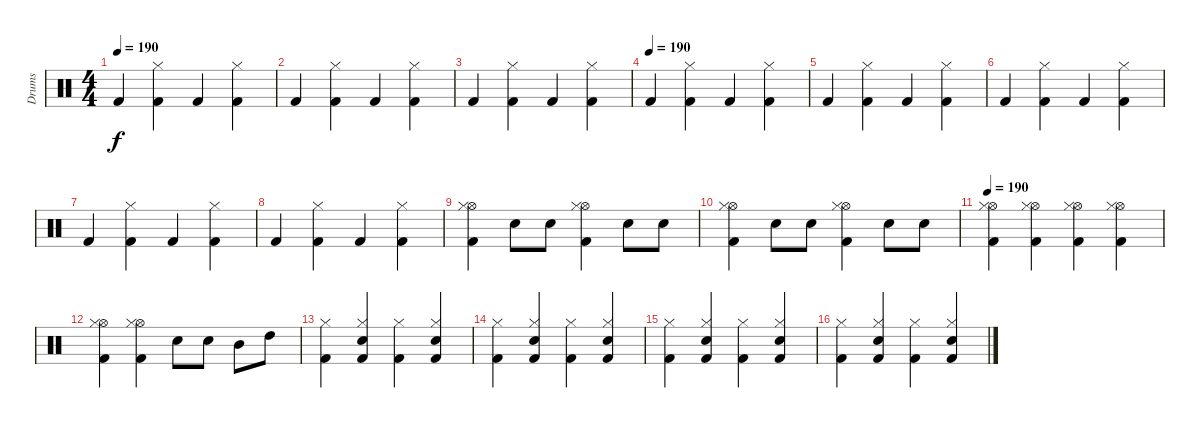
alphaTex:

\track ("Drums" "Drums") {instrument percussion}
\staff {score}
\articulation defaults
\ts (4 4)
\tempo 190
\clef neutral
\ks c "Kick (hit) 2".4{dy f}
("Hi-Hat (closed)" "Kick (hit) 2").4 "Kick (hit) 2".4 ("Hi-Hat (closed)" "Kick (hit) 2").4 |
"Kick (hit) 2".4 ("Hi-Hat (closed)" "Kick (hit) 2").4 "Kick (hit) 2".4 ("Hi-Hat (closed)" "Kick (hit) 2").4 |
"Kick (hit) 2".4 ("Hi-Hat (closed)" "Kick (hit) 2").4 "Kick (hit) 2".4 ("Hi-Hat (closed)" "Kick (hit) 2").4 |
\tempo (190)
"Kick (hit) 2".4 ("Hi-Hat (closed)" "Kick (hit) 2").4 "Kick (hit) 2".4 ("Hi-Hat (closed)" "Kick (hit) 2").4 |
"Kick (hit) 2".4 ("Hi-Hat (closed)" "Kick (hit) 2").4 "Kick (hit) 2".4 ("Hi-Hat (closed)" "Kick (hit) 2").4 |
"Kick (hit) 2".4 ("Hi-Hat (closed)" "Kick (hit) 2").4 "Kick (hit) 2".4 ("Hi-Hat (closed)" "Kick (hit) 2").4 |
"Kick (hit) 2".4 ("Hi-Hat (closed)" "Kick (hit) 2").4 "Kick (hit) 2".4 ("Hi-Hat (closed)" "Kick (hit) 2").4 |
"Kick (hit) 2".4 ("Hi-Hat (closed)" "Kick (hit) 2").4 "Kick (hit) 2".4 ("Hi-Hat (closed)" "Kick (hit) 2").4 |
("Hi-Hat (open)" "Hi-Hat (closed)" "Kick (hit) 2").4 "Snare (hit) 2".8 "Snare (hit) 2".8 ("Hi-Hat (open)" "Hi-Hat (closed)" "Kick (hit) 2").4 "Snare (hit) 2".8 "Snare (hit) 2".8 |
("Hi-Hat (open)" "Hi-Hat (closed)" "Kick (hit) 2").4 "Snare (hit) 2".8 "Snare (hit) 2".8 ("Hi-Hat (open)" "Hi-Hat (closed)" "Kick (hit) 2").4 "Snare (hit) 2".8 "Snare (hit) 2".8 |
\tempo 190
("Hi-Hat (open)" "Hi-Hat (closed)" "Kick (hit) 2").4 ("Hi-Hat (open)" "Hi-Hat (closed)" "Kick (hit) 2").4 ("Hi-Hat (open)" "Hi-Hat (closed)" "Kick (hit) 2").4 ("Hi-Hat (open)" "Hi-Hat (closed)" "Kick (hit) 2").4 |
("Hi-Hat (open)" "Hi-Hat (closed)" "Kick (hit) 2").4 ("Hi-Hat (open)" "Hi-Hat (closed)" "Kick (hit) 2").4 "Snare (hit) 2".8 "Snare (hit) 2".8 "Mid Tom (hit)".8 "High Tom (hit)".8 |
("Hi-Hat (closed)" "Kick (hit) 2").4 ("Hi-Hat (closed)" "Snare (hit) 2" "Kick (hit) 2").4 ("Hi-Hat (closed)" "Kick (hit) 2").4 ("Hi-Hat (closed)" "Snare (hit) 2" "Kick (hit) 2").4 |
("Hi-Hat (closed)" "Kick (hit) 2").4 ("Hi-Hat (closed)" "Snare (hit) 2" "Kick (hit) 2").4 ("Hi-Hat (closed)" "Kick (hit) 2").4 ("Hi-Hat (closed)" "Snare (hit) 2" "Kick (hit) 2").4 |
("Hi-Hat (closed)" "Kick (hit) 2").4 ("Hi-Hat (closed)" "Snare (hit) 2" "Kick (hit) 2").4 ("Hi-Hat (closed)" "Kick (hit) 2").4 ("Hi-Hat (closed)" "Snare (hit) 2" "Kick (hit) 2").4 |
("Hi-Hat (closed)" "Kick (hit) 2").4 ("Hi-Hat (closed)" "Snare (hit) 2" "Kick (hit) 2").4 ("Hi-Hat (closed)" "Kick (hit) 2").4 ("Hi-Hat (closed)" "Snare (hit) 2" "Kick (hit) 2").4
